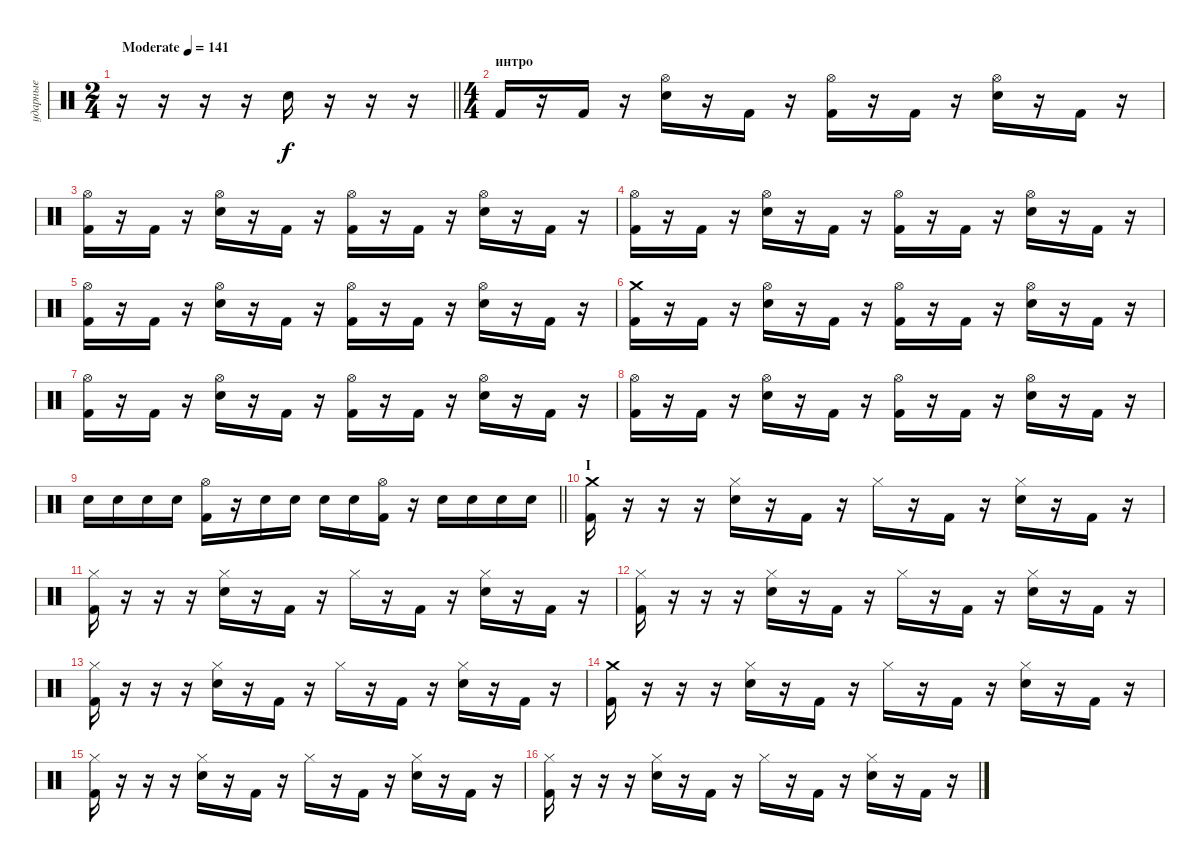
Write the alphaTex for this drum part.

\track ("ударные" "ударные") {instrument percussion}
\staff {score}
\articulation defaults
\ts (2 4)
\tempo (141 "Moderate")
\clef neutral
\barLineRight lightlight
\ks c
r.16{dy f} r.16 r.16 r.16 "Snare (hit) 2".16 r.16 r.16 r.16 |
\ts (4 4)
\section ("" "интро")
"Kick (hit) 2".16 r.16 "Kick (hit) 2".16 r.16 ("Snare (hit) 2" "Hi-Hat (open)").16 r.16 "Kick (hit) 2".16 r.16 ("Kick (hit) 2" "Hi-Hat (open)").16 r.16 "Kick (hit) 2".16 r.16 ("Snare (hit) 2" "Hi-Hat (open)").16 r.16 "Kick (hit) 2".16 r.16 |
("Kick (hit) 2" "Hi-Hat (open)").16 r.16 "Kick (hit) 2".16 r.16 ("Snare (hit) 2" "Hi-Hat (open)").16 r.16 "Kick (hit) 2".16 r.16 ("Kick (hit) 2" "Hi-Hat (open)").16 r.16 "Kick (hit) 2".16 r.16 ("Snare (hit) 2" "Hi-Hat (open)").16 r.16 "Kick (hit) 2".16 r.16 |
("Kick (hit) 2" "Hi-Hat (open)").16 r.16 "Kick (hit) 2".16 r.16 ("Snare (hit) 2" "Hi-Hat (open)").16 r.16 "Kick (hit) 2".16 r.16 ("Kick (hit) 2" "Hi-Hat (open)").16 r.16 "Kick (hit) 2".16 r.16 ("Snare (hit) 2" "Hi-Hat (open)").16 r.16 "Kick (hit) 2".16 r.16 |
("Kick (hit) 2" "Hi-Hat (open)").16 r.16 "Kick (hit) 2".16 r.16 ("Snare (hit) 2" "Hi-Hat (open)").16 r.16 "Kick (hit) 2".16 r.16 ("Kick (hit) 2" "Hi-Hat (open)").16 r.16 "Kick (hit) 2".16 r.16 ("Snare (hit) 2" "Hi-Hat (open)").16 r.16 "Kick (hit) 2".16 r.16 |
("Kick (hit) 2" "Crash medium (hit)").16 r.16 "Kick (hit) 2".16 r.16 ("Snare (hit) 2" "Hi-Hat (open)").16 r.16 "Kick (hit) 2".16 r.16 ("Kick (hit) 2" "Hi-Hat (open)").16 r.16 "Kick (hit) 2".16 r.16 ("Snare (hit) 2" "Hi-Hat (open)").16 r.16 "Kick (hit) 2".16 r.16 |
("Kick (hit) 2" "Hi-Hat (open)").16 r.16 "Kick (hit) 2".16 r.16 ("Snare (hit) 2" "Hi-Hat (open)").16 r.16 "Kick (hit) 2".16 r.16 ("Kick (hit) 2" "Hi-Hat (open)").16 r.16 "Kick (hit) 2".16 r.16 ("Snare (hit) 2" "Hi-Hat (open)").16 r.16 "Kick (hit) 2".16 r.16 |
("Kick (hit) 2" "Hi-Hat (open)").16 r.16 "Kick (hit) 2".16 r.16 ("Snare (hit) 2" "Hi-Hat (open)").16 r.16 "Kick (hit) 2".16 r.16 ("Kick (hit) 2" "Hi-Hat (open)").16 r.16 "Kick (hit) 2".16 r.16 ("Snare (hit) 2" "Hi-Hat (open)").16 r.16 "Kick (hit) 2".16 r.16 |
\barLineRight lightlight "Snare (hit) 2".16 "Snare (hit) 2".16 "Snare (hit) 2".16 "Snare (hit) 2".16
("Kick (hit) 2" "Hi-Hat (open)").16 r.16 "Snare (hit) 2".16 "Snare (hit) 2".16 "Snare (hit) 2".16 "Snare (hit) 2".16 ("Kick (hit) 2" "Hi-Hat (open)").16 r.16 "Snare (hit) 2".16 "Snare (hit) 2".16 "Snare (hit) 2".16 "Snare (hit) 2".16 |
\section ("" "I")
("Kick (hit) 2" "Crash medium (hit)").16 r.16 r.16 r.16 ("Snare (hit) 2" "Hi-Hat (closed)").16 r.16 "Kick (hit) 2".16 r.16 "Hi-Hat (closed)".16 r.16 "Kick (hit) 2".16 r.16 ("Snare (hit) 2" "Hi-Hat (closed)").16 r.16 "Kick (hit) 2".16 r.16 |
("Kick (hit) 2" "Hi-Hat (closed)").16 r.16 r.16 r.16 ("Snare (hit) 2" "Hi-Hat (closed)").16 r.16 "Kick (hit) 2".16 r.16 "Hi-Hat (closed)".16 r.16 "Kick (hit) 2".16 r.16 ("Snare (hit) 2" "Hi-Hat (closed)").16 r.16 "Kick (hit) 2".16 r.16 |
("Kick (hit) 2" "Hi-Hat (closed)").16 r.16 r.16 r.16 ("Snare (hit) 2" "Hi-Hat (closed)").16 r.16 "Kick (hit) 2".16 r.16 "Hi-Hat (closed)".16 r.16 "Kick (hit) 2".16 r.16 ("Snare (hit) 2" "Hi-Hat (closed)").16 r.16 "Kick (hit) 2".16 r.16 |
("Kick (hit) 2" "Hi-Hat (closed)").16 r.16 r.16 r.16 ("Snare (hit) 2" "Hi-Hat (closed)").16 r.16 "Kick (hit) 2".16 r.16 "Hi-Hat (closed)".16 r.16 "Kick (hit) 2".16 r.16 ("Snare (hit) 2" "Hi-Hat (closed)").16 r.16 "Kick (hit) 2".16 r.16 |
("Kick (hit) 2" "Crash medium (hit)").16 r.16 r.16 r.16 ("Snare (hit) 2" "Hi-Hat (closed)").16 r.16 "Kick (hit) 2".16 r.16 "Hi-Hat (closed)".16 r.16 "Kick (hit) 2".16 r.16 ("Snare (hit) 2" "Hi-Hat (closed)").16 r.16 "Kick (hit) 2".16 r.16 |
("Kick (hit) 2" "Hi-Hat (closed)").16 r.16 r.16 r.16 ("Snare (hit) 2" "Hi-Hat (closed)").16 r.16 "Kick (hit) 2".16 r.16 "Hi-Hat (closed)".16 r.16 "Kick (hit) 2".16 r.16 ("Snare (hit) 2" "Hi-Hat (closed)").16 r.16 "Kick (hit) 2".16 r.16 |
("Kick (hit) 2" "Hi-Hat (closed)").16 r.16 r.16 r.16 ("Snare (hit) 2" "Hi-Hat (closed)").16 r.16 "Kick (hit) 2".16 r.16 "Hi-Hat (closed)".16 r.16 "Kick (hit) 2".16 r.16 ("Snare (hit) 2" "Hi-Hat (closed)").16 r.16 "Kick (hit) 2".16 r.16
